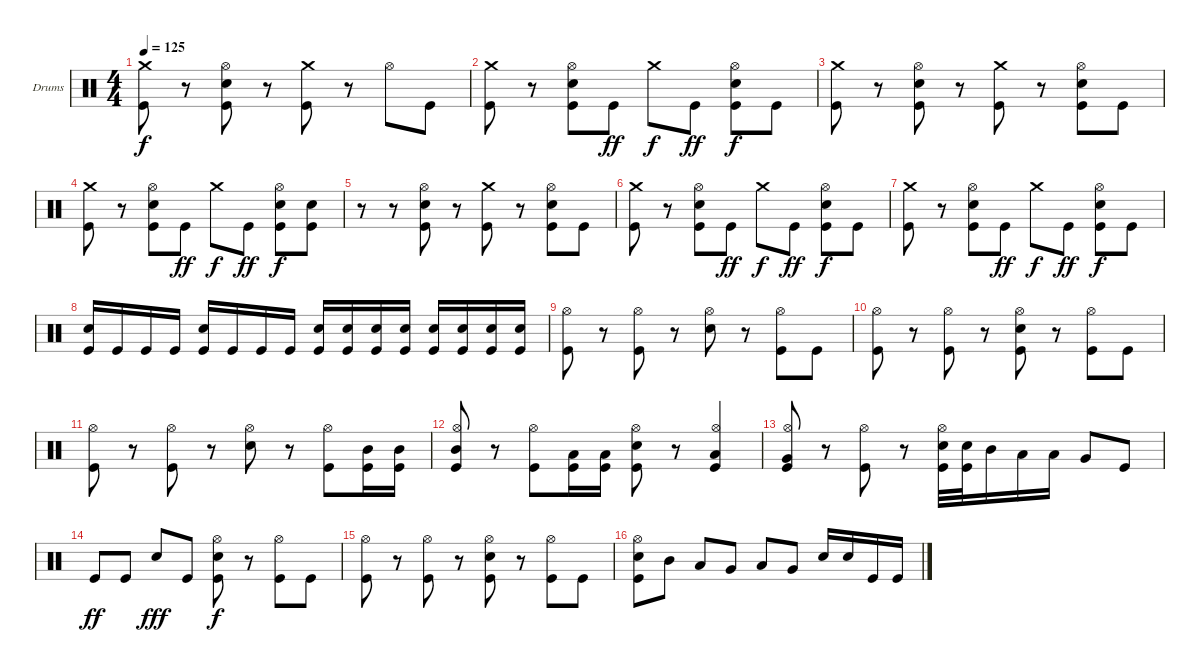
\defaultSystemsLayout 4
\bracketExtendMode groupsimilarinstruments
\firstSystemTrackNameOrientation horizontal
\otherSystemsTrackNameOrientation horizontal
\track ("Drumkit" "Drums") {instrument percussion}
\staff {score}
\articulation defaults
\ts (4 4)
\tempo 125
\clef neutral
\ks c
("Kick (hit)" "Crash medium (hit)").8{dy f} r.8 ("Kick (hit)" "Snare (hit) 2" "Hi-Hat (open)").8 r.8 ("Kick (hit)" "Crash medium (hit)").8 r.8 "Hi-Hat (open)".8 "Kick (hit)".8 |
("Kick (hit)" "Crash medium (hit)").8 r.8 ("Kick (hit)" "Snare (hit) 2" "Hi-Hat (open)").8 "Kick (hit)".8{dy ff} "Crash medium (hit)".8{dy f} "Kick (hit)".8{dy ff} ("Kick (hit)" "Snare (hit) 2" "Hi-Hat (open)").8{dy f} "Kick (hit)".8 |
("Kick (hit)" "Crash medium (hit)").8 r.8 ("Kick (hit)" "Snare (hit) 2" "Hi-Hat (open)").8 r.8 ("Kick (hit)" "Crash medium (hit)").8 r.8 ("Kick (hit)" "Snare (hit) 2" "Hi-Hat (open)").8 "Kick (hit)".8 |
("Kick (hit)" "Crash medium (hit)").8 r.8 ("Kick (hit)" "Snare (hit) 2" "Hi-Hat (open)").8 "Kick (hit)".8{dy ff} "Crash medium (hit)".8{dy f} "Kick (hit)".8{dy ff} ("Kick (hit)" "Snare (hit) 2" "Hi-Hat (open)").8{dy f} ("Kick (hit)" "Snare (hit) 2").8 |
r.8 r.8 ("Kick (hit)" "Snare (hit) 2" "Hi-Hat (open)").8 r.8 ("Kick (hit)" "Crash medium (hit)").8 r.8 ("Kick (hit)" "Snare (hit) 2" "Hi-Hat (open)").8 "Kick (hit)".8 |
("Kick (hit)" "Crash medium (hit)").8 r.8 ("Kick (hit)" "Snare (hit) 2" "Hi-Hat (open)").8 "Kick (hit)".8{dy ff} "Crash medium (hit)".8{dy f} "Kick (hit)".8{dy ff} ("Kick (hit)" "Snare (hit) 2" "Hi-Hat (open)").8{dy f} "Kick (hit)".8 |
("Kick (hit)" "Crash medium (hit)").8 r.8 ("Kick (hit)" "Snare (hit) 2" "Hi-Hat (open)").8 "Kick (hit)".8{dy ff} "Crash medium (hit)".8{dy f} "Kick (hit)".8{dy ff} ("Kick (hit)" "Snare (hit) 2" "Hi-Hat (open)").8{dy f} "Kick (hit)".8 |
("Kick (hit)" "Snare (hit) 2").16 "Kick (hit)".16 "Kick (hit)".16 "Kick (hit)".16 ("Kick (hit)" "Snare (hit) 2").16 "Kick (hit)".16 "Kick (hit)".16 "Kick (hit)".16 ("Kick (hit)" "Snare (hit) 2").16 ("Kick (hit)" "Snare (hit) 2").16 ("Kick (hit)" "Snare (hit) 2").16 ("Kick (hit)" "Snare (hit) 2").16 ("Kick (hit)" "Snare (hit) 2").16 ("Kick (hit)" "Snare (hit) 2").16 ("Kick (hit)" "Snare (hit) 2").16 ("Kick (hit)" "Snare (hit) 2").16 |
("Kick (hit)" "Hi-Hat (open)").8 r.8 ("Kick (hit)" "Hi-Hat (open)").8 r.8 ("Snare (hit) 2" "Hi-Hat (open)").8 r.8 ("Kick (hit)" "Hi-Hat (open)").8 "Kick (hit)".8 |
("Kick (hit)" "Hi-Hat (open)").8 r.8 ("Kick (hit)" "Hi-Hat (open)").8 r.8 ("Kick (hit)" "Snare (hit) 2" "Hi-Hat (open)").8 r.8 ("Kick (hit)" "Hi-Hat (open)").8 "Kick (hit)".8 |
("Kick (hit)" "Hi-Hat (open)").8 r.8 ("Kick (hit)" "Hi-Hat (open)").8 r.8 ("Snare (hit) 2" "Hi-Hat (open)").8 r.8 ("Kick (hit)" "Hi-Hat (open)").8 ("Kick (hit)" "Mid Tom (hit)").16 ("Kick (hit)" "Mid Tom (hit)").16 |
("Kick (hit)" "Mid Tom (hit)" "Hi-Hat (open)").8 r.8 ("Kick (hit)" "Hi-Hat (open)").8 ("Kick (hit)" "Low Tom (hit)").16 ("Kick (hit)" "Low Tom (hit)").16 ("Kick (hit)" "Snare (hit) 2" "Hi-Hat (open)").8 r.8 ("Kick (hit)" "Low Tom (hit)" "Hi-Hat (open)").4 |
("Kick (hit)" "Very Low Tom (hit)" "Hi-Hat (open)").8 r.8 ("Kick (hit)" "Hi-Hat (open)").8 r.8 ("Kick (hit)" "Snare (hit) 2" "Hi-Hat (open)").32 ("Kick (hit)" "Snare (hit) 2").32 "Mid Tom (hit)".16 "Low Tom (hit)".16 "Low Tom (hit)".16 "Very Low Tom (hit)".8 "Kick (hit)".8 |
"Kick (hit)".8{dy ff} "Kick (hit)".8 "Snare (hit) 2".8{dy fff} "Kick (hit)".8 ("Kick (hit)" "Snare (hit) 2" "Hi-Hat (open)").8{dy f} r.8 ("Kick (hit)" "Hi-Hat (open)").8 "Kick (hit)".8 |
("Kick (hit)" "Hi-Hat (open)").8 r.8 ("Kick (hit)" "Hi-Hat (open)").8 r.8 ("Kick (hit)" "Snare (hit) 2" "Hi-Hat (open)").8 r.8 ("Kick (hit)" "Hi-Hat (open)").8 "Kick (hit)".8 |
("Kick (hit)" "Snare (hit) 2" "Hi-Hat (open)").8 "Mid Tom (hit)".8 "Low Tom (hit)".8 "Very Low Tom (hit)".8 "Low Tom (hit)".8 "Very Low Tom (hit)".8 "Snare (hit) 2".16 "Snare (hit) 2".16 "Kick (hit)".16 "Kick (hit)".16
